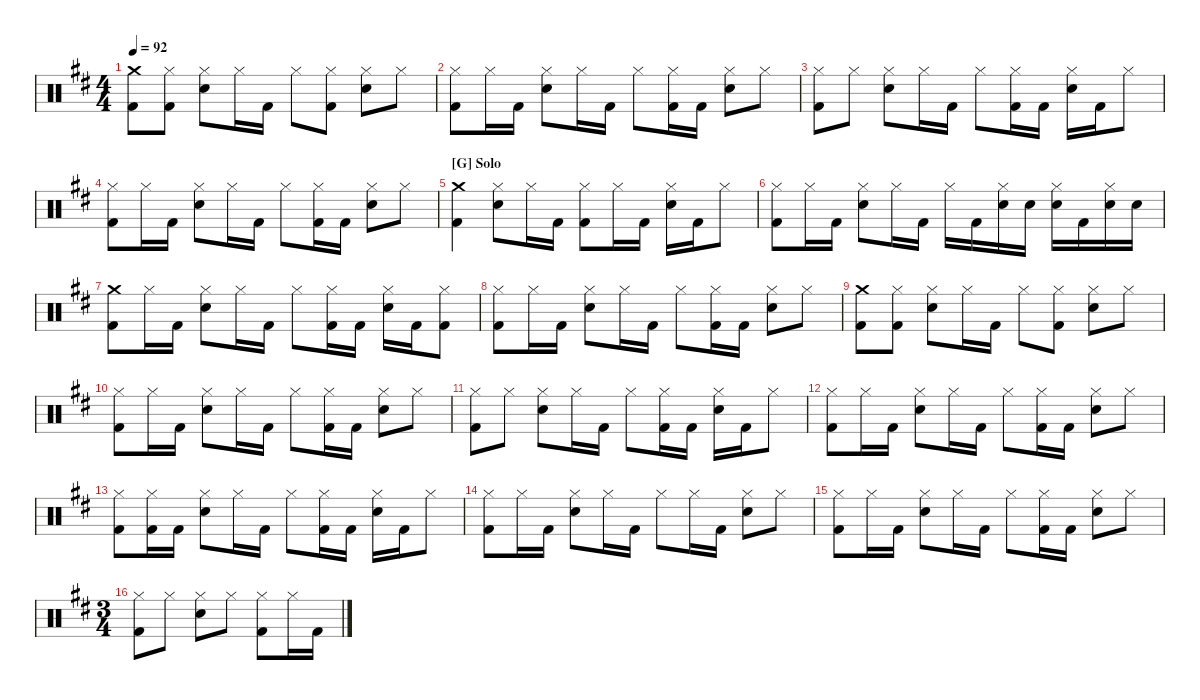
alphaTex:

\hideDynamics
\bracketExtendMode nobrackets
\singleTrackTrackNamePolicy hidden
\multiTrackTrackNamePolicy hidden
\firstSystemTrackNameMode fullname
\firstSystemTrackNameOrientation horizontal
\otherSystemsTrackNameOrientation horizontal
\track ("Drumkit" "Drums") {instrument percussion}
\staff {score}
\articulation defaults
\ts (4 4)
\tempo 92
\clef neutral
\ks d
("Crash medium (hit)"{acc forcenatural} "Kick (hit) 2"{acc forcenatural}).8{dy f beam Down} ("Hi-Hat (closed)"{acc forcenatural} "Kick (hit) 2"{acc forcenatural}).8{beam Down} ("Hi-Hat (closed)"{acc forcenatural} "Snare (hit) 2"{acc forcenatural}).8{beam Down} "Hi-Hat (closed)"{acc forcenatural}.16{beam Down} "Kick (hit) 2"{acc forcenatural}.16{beam Down} "Hi-Hat (closed)"{acc forcenatural}.8{beam Down} ("Hi-Hat (closed)"{acc forcenatural} "Kick (hit) 2"{acc forcenatural}).8{beam Down} ("Hi-Hat (closed)"{acc forcenatural} "Snare (hit) 2"{acc forcenatural}).8{beam Down} "Hi-Hat (closed)"{acc forcenatural}.8{beam Down} |
("Hi-Hat (closed)"{acc forcenatural} "Kick (hit) 2"{acc forcenatural}).8{beam Down} "Hi-Hat (closed)"{acc forcenatural}.16{beam Down} "Kick (hit) 2"{acc forcenatural}.16{beam Down} ("Hi-Hat (closed)"{acc forcenatural} "Snare (hit) 2"{acc forcenatural}).8{beam Down} "Hi-Hat (closed)"{acc forcenatural}.16{beam Down} "Kick (hit) 2"{acc forcenatural}.16{beam Down} "Hi-Hat (closed)"{acc forcenatural}.8{beam Down} ("Hi-Hat (closed)"{acc forcenatural} "Kick (hit) 2"{acc forcenatural}).16{beam Down} "Kick (hit) 2"{acc forcenatural}.16{beam Down} ("Hi-Hat (closed)"{acc forcenatural} "Snare (hit) 2"{acc forcenatural}).8{beam Down} "Hi-Hat (closed)"{acc forcenatural}.8{beam Down} |
("Hi-Hat (closed)"{acc forcenatural} "Kick (hit) 2"{acc forcenatural}).8{beam Down} "Hi-Hat (closed)"{acc forcenatural}.8{beam Down} ("Hi-Hat (closed)"{acc forcenatural} "Snare (hit) 2"{acc forcenatural}).8{beam Down} "Hi-Hat (closed)"{acc forcenatural}.16{beam Down} "Kick (hit) 2"{acc forcenatural}.16{beam Down} "Hi-Hat (closed)"{acc forcenatural}.8{beam Down} ("Hi-Hat (closed)"{acc forcenatural} "Kick (hit) 2"{acc forcenatural}).16{beam Down} "Kick (hit) 2"{acc forcenatural}.16{beam Down} ("Hi-Hat (closed)"{acc forcenatural} "Snare (hit) 2"{acc forcenatural}).16{beam Down} "Kick (hit) 2"{acc forcenatural}.16{beam Down} "Hi-Hat (closed)"{acc forcenatural}.8{beam Down} |
("Hi-Hat (closed)"{acc forcenatural} "Kick (hit) 2"{acc forcenatural}).8{beam Down} "Hi-Hat (closed)"{acc forcenatural}.16{beam Down} "Kick (hit) 2"{acc forcenatural}.16{beam Down} ("Hi-Hat (closed)"{acc forcenatural} "Snare (hit) 2"{acc forcenatural}).8{beam Down} "Hi-Hat (closed)"{acc forcenatural}.16{beam Down} "Kick (hit) 2"{acc forcenatural}.16{beam Down} "Hi-Hat (closed)"{acc forcenatural}.8{beam Down} ("Hi-Hat (closed)"{acc forcenatural} "Kick (hit) 2"{acc forcenatural}).16{beam Down} "Kick (hit) 2"{acc forcenatural}.16{beam Down} ("Hi-Hat (closed)"{acc forcenatural} "Snare (hit) 2"{acc forcenatural}).8{beam Down} "Hi-Hat (closed)"{acc forcenatural}.8{beam Down} |
\section ("G" "Solo")
("Crash medium (hit)"{acc forcenatural} "Kick (hit) 2"{acc forcenatural}).4{beam Down} ("Hi-Hat (closed)"{acc forcenatural} "Snare (hit) 2"{acc forcenatural}).8{beam Down} "Hi-Hat (closed)"{acc forcenatural}.16{beam Down} "Kick (hit) 2"{acc forcenatural}.16{beam Down} ("Hi-Hat (closed)"{acc forcenatural} "Kick (hit) 2"{acc forcenatural}).8{beam Down} "Hi-Hat (closed)"{acc forcenatural}.16{beam Down} "Kick (hit) 2"{acc forcenatural}.16{beam Down} ("Hi-Hat (closed)"{acc forcenatural} "Snare (hit) 2"{acc forcenatural}).16{beam Down} "Kick (hit) 2"{acc forcenatural}.16{beam Down} "Hi-Hat (closed)"{acc forcenatural}.8{beam Down} |
("Hi-Hat (closed)"{acc forcenatural} "Kick (hit) 2"{acc forcenatural}).8{beam Down} "Hi-Hat (closed)"{acc forcenatural}.16{beam Down} "Kick (hit) 2"{acc forcenatural}.16{beam Down} ("Hi-Hat (closed)"{acc forcenatural} "Snare (hit) 2"{acc forcenatural}).8{beam Down} "Hi-Hat (closed)"{acc forcenatural}.16{beam Down} "Kick (hit) 2"{acc forcenatural}.16{beam Down} "Hi-Hat (closed)"{acc forcenatural}.16{beam Down} "Kick (hit) 2"{acc forcenatural}.16{beam Down} ("Hi-Hat (closed)"{acc forcenatural} "Snare (hit) 2"{acc forcenatural}).16{beam Down} "Snare (hit) 2"{acc forcenatural}.16{beam Down} ("Hi-Hat (closed)"{acc forcenatural} "Snare (hit) 2"{acc forcenatural}).16{beam Down} "Kick (hit) 2"{acc forcenatural}.16{beam Down} ("Hi-Hat (closed)"{acc forcenatural} "Snare (hit) 2"{acc forcenatural}).16{beam Down} "Snare (hit) 2"{acc forcenatural}.16{beam Down} |
("Crash medium (hit)"{acc forcenatural} "Kick (hit) 2"{acc forcenatural}).8{beam Down} "Hi-Hat (closed)"{acc forcenatural}.16{beam Down} "Kick (hit) 2"{acc forcenatural}.16{beam Down} ("Hi-Hat (closed)"{acc forcenatural} "Snare (hit) 2"{acc forcenatural}).8{beam Down} "Hi-Hat (closed)"{acc forcenatural}.16{beam Down} "Kick (hit) 2"{acc forcenatural}.16{beam Down} "Hi-Hat (closed)"{acc forcenatural}.8{beam Down} ("Hi-Hat (closed)"{acc forcenatural} "Kick (hit) 2"{acc forcenatural}).16{beam Down} "Kick (hit) 2"{acc forcenatural}.16{beam Down} ("Hi-Hat (closed)"{acc forcenatural} "Snare (hit) 2"{acc forcenatural}).16{beam Down} "Kick (hit) 2"{acc forcenatural}.16{beam Down} ("Hi-Hat (closed)"{acc forcenatural} "Kick (hit) 2"{acc forcenatural}).8{beam Down} |
("Hi-Hat (closed)"{acc forcenatural} "Kick (hit) 2"{acc forcenatural}).8{beam Down} "Hi-Hat (closed)"{acc forcenatural}.16{beam Down} "Kick (hit) 2"{acc forcenatural}.16{beam Down} ("Hi-Hat (closed)"{acc forcenatural} "Snare (hit) 2"{acc forcenatural}).8{beam Down} "Hi-Hat (closed)"{acc forcenatural}.16{beam Down} "Kick (hit) 2"{acc forcenatural}.16{beam Down} "Hi-Hat (closed)"{acc forcenatural}.8{beam Down} ("Hi-Hat (closed)"{acc forcenatural} "Kick (hit) 2"{acc forcenatural}).16{beam Down} "Kick (hit) 2"{acc forcenatural}.16{beam Down} ("Hi-Hat (closed)"{acc forcenatural} "Snare (hit) 2"{acc forcenatural}).8{beam Down} "Hi-Hat (closed)"{acc forcenatural}.8{beam Down} |
("Crash medium (hit)"{acc forcenatural} "Kick (hit) 2"{acc forcenatural}).8{beam Down} ("Hi-Hat (closed)"{acc forcenatural} "Kick (hit) 2"{acc forcenatural}).8{beam Down} ("Hi-Hat (closed)"{acc forcenatural} "Snare (hit) 2"{acc forcenatural}).8{beam Down} "Hi-Hat (closed)"{acc forcenatural}.16{beam Down} "Kick (hit) 2"{acc forcenatural}.16{beam Down} "Hi-Hat (closed)"{acc forcenatural}.8{beam Down} ("Hi-Hat (closed)"{acc forcenatural} "Kick (hit) 2"{acc forcenatural}).8{beam Down} ("Hi-Hat (closed)"{acc forcenatural} "Snare (hit) 2"{acc forcenatural}).8{beam Down} "Hi-Hat (closed)"{acc forcenatural}.8{beam Down} |
("Hi-Hat (closed)"{acc forcenatural} "Kick (hit) 2"{acc forcenatural}).8{beam Down} "Hi-Hat (closed)"{acc forcenatural}.16{beam Down} "Kick (hit) 2"{acc forcenatural}.16{beam Down} ("Hi-Hat (closed)"{acc forcenatural} "Snare (hit) 2"{acc forcenatural}).8{beam Down} "Hi-Hat (closed)"{acc forcenatural}.16{beam Down} "Kick (hit) 2"{acc forcenatural}.16{beam Down} "Hi-Hat (closed)"{acc forcenatural}.8{beam Down} ("Hi-Hat (closed)"{acc forcenatural} "Kick (hit) 2"{acc forcenatural}).16{beam Down} "Kick (hit) 2"{acc forcenatural}.16{beam Down} ("Hi-Hat (closed)"{acc forcenatural} "Snare (hit) 2"{acc forcenatural}).8{beam Down} "Hi-Hat (closed)"{acc forcenatural}.8{beam Down} |
("Hi-Hat (closed)"{acc forcenatural} "Kick (hit) 2"{acc forcenatural}).8{beam Down} "Hi-Hat (closed)"{acc forcenatural}.8{beam Down} ("Hi-Hat (closed)"{acc forcenatural} "Snare (hit) 2"{acc forcenatural}).8{beam Down} "Hi-Hat (closed)"{acc forcenatural}.16{beam Down} "Kick (hit) 2"{acc forcenatural}.16{beam Down} "Hi-Hat (closed)"{acc forcenatural}.8{beam Down} ("Hi-Hat (closed)"{acc forcenatural} "Kick (hit) 2"{acc forcenatural}).16{beam Down} "Kick (hit) 2"{acc forcenatural}.16{beam Down} ("Hi-Hat (closed)"{acc forcenatural} "Snare (hit) 2"{acc forcenatural}).16{beam Down} "Kick (hit) 2"{acc forcenatural}.16{beam Down} "Hi-Hat (closed)"{acc forcenatural}.8{beam Down} |
("Hi-Hat (closed)"{acc forcenatural} "Kick (hit) 2"{acc forcenatural}).8{beam Down} "Hi-Hat (closed)"{acc forcenatural}.16{beam Down} "Kick (hit) 2"{acc forcenatural}.16{beam Down} ("Hi-Hat (closed)"{acc forcenatural} "Snare (hit) 2"{acc forcenatural}).8{beam Down} "Hi-Hat (closed)"{acc forcenatural}.16{beam Down} "Kick (hit) 2"{acc forcenatural}.16{beam Down} "Hi-Hat (closed)"{acc forcenatural}.8{beam Down} ("Hi-Hat (closed)"{acc forcenatural} "Kick (hit) 2"{acc forcenatural}).16{beam Down} "Kick (hit) 2"{acc forcenatural}.16{beam Down} ("Hi-Hat (closed)"{acc forcenatural} "Snare (hit) 2"{acc forcenatural}).8{beam Down} "Hi-Hat (closed)"{acc forcenatural}.8{beam Down} |
("Hi-Hat (closed)"{acc forcenatural} "Kick (hit) 2"{acc forcenatural}).8{beam Down} ("Hi-Hat (closed)"{acc forcenatural} "Kick (hit) 2"{acc forcenatural}).16{beam Down} "Kick (hit) 2"{acc forcenatural}.16{beam Down} ("Hi-Hat (closed)"{acc forcenatural} "Snare (hit) 2"{acc forcenatural}).8{beam Down} "Hi-Hat (closed)"{acc forcenatural}.16{beam Down} "Kick (hit) 2"{acc forcenatural}.16{beam Down} "Hi-Hat (closed)"{acc forcenatural}.8{beam Down} ("Hi-Hat (closed)"{acc forcenatural} "Kick (hit) 2"{acc forcenatural}).16{beam Down} "Kick (hit) 2"{acc forcenatural}.16{beam Down} ("Hi-Hat (closed)"{acc forcenatural} "Snare (hit) 2"{acc forcenatural}).16{beam Down} "Kick (hit) 2"{acc forcenatural}.16{beam Down} "Hi-Hat (closed)"{acc forcenatural}.8{beam Down} |
("Hi-Hat (closed)"{acc forcenatural} "Kick (hit) 2"{acc forcenatural}).8{beam Down} "Hi-Hat (closed)"{acc forcenatural}.16{beam Down} "Kick (hit) 2"{acc forcenatural}.16{beam Down} ("Hi-Hat (closed)"{acc forcenatural} "Snare (hit) 2"{acc forcenatural}).8{beam Down} "Hi-Hat (closed)"{acc forcenatural}.16{beam Down} "Kick (hit) 2"{acc forcenatural}.16{beam Down} "Hi-Hat (closed)"{acc forcenatural}.8{beam Down} "Hi-Hat (closed)"{acc forcenatural}.16{beam Down} "Kick (hit) 2"{acc forcenatural}.16{beam Down} ("Hi-Hat (closed)"{acc forcenatural} "Snare (hit) 2"{acc forcenatural}).8{beam Down} "Hi-Hat (closed)"{acc forcenatural}.8{beam Down} |
("Hi-Hat (closed)"{acc forcenatural} "Kick (hit) 2"{acc forcenatural}).8{beam Down} "Hi-Hat (closed)"{acc forcenatural}.16{beam Down} "Kick (hit) 2"{acc forcenatural}.16{beam Down} ("Hi-Hat (closed)"{acc forcenatural} "Snare (hit) 2"{acc forcenatural}).8{beam Down} "Hi-Hat (closed)"{acc forcenatural}.16{beam Down} "Kick (hit) 2"{acc forcenatural}.16{beam Down} "Hi-Hat (closed)"{acc forcenatural}.8{beam Down} ("Hi-Hat (closed)"{acc forcenatural} "Kick (hit) 2"{acc forcenatural}).16{beam Down} "Kick (hit) 2"{acc forcenatural}.16{beam Down} ("Hi-Hat (closed)"{acc forcenatural} "Snare (hit) 2"{acc forcenatural}).8{beam Down} "Hi-Hat (closed)"{acc forcenatural}.8{beam Down} |
\ts (3 4)
("Hi-Hat (closed)"{acc forcenatural} "Kick (hit) 2"{acc forcenatural}).8{beam Down} "Hi-Hat (closed)"{acc forcenatural}.8{beam Down} ("Hi-Hat (closed)"{acc forcenatural} "Snare (hit) 2"{acc forcenatural}).8{beam Down} "Hi-Hat (closed)"{acc forcenatural}.8{beam Down} ("Hi-Hat (closed)"{acc forcenatural} "Kick (hit) 2"{acc forcenatural}).8{beam Down} "Hi-Hat (closed)"{acc forcenatural}.16{beam Down} "Kick (hit) 2"{acc forcenatural}.16{beam Down}
